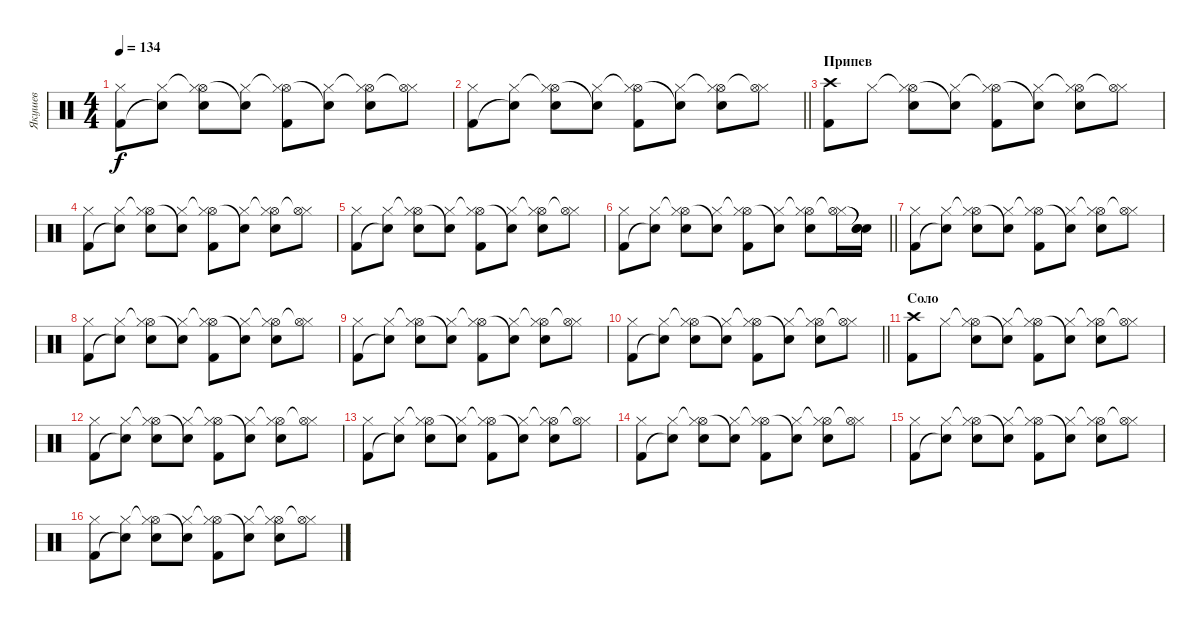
\track ("Якушев" "Якушев") {instrument percussion}
\staff {score}
\articulation defaults
\ts (4 4)
\tempo 134
\clef neutral
\ks c
("Hi-Hat (closed)" "Kick (hit) 2").8{dy f} ("Hi-Hat (closed)" "Snare (hit)"{t}).8 ("Hi-Hat (open)"{t} "Hi-Hat (closed)" "Snare (hit) 2").8 ("Hi-Hat (closed)" "Snare (hit)"{t}).8 ("Hi-Hat (open)"{t} "Hi-Hat (closed)" "Kick (hit) 2").8 ("Hi-Hat (closed)" "Snare (hit)"{t}).8 ("Hi-Hat (open)"{t} "Hi-Hat (closed)" "Snare (hit) 2").8 ("Hi-Hat (closed)" "Hi-Hat (open)"{t}).8 |
\barLineRight lightlight
("Hi-Hat (closed)" "Kick (hit) 2").8 ("Hi-Hat (closed)" "Snare (hit)"{t}).8 ("Hi-Hat (open)"{t} "Hi-Hat (closed)" "Snare (hit) 2").8 ("Hi-Hat (closed)" "Snare (hit)"{t}).8 ("Hi-Hat (open)"{t} "Hi-Hat (closed)" "Kick (hit) 2").8 ("Hi-Hat (closed)" "Snare (hit)"{t}).8 ("Hi-Hat (open)"{t} "Hi-Hat (closed)" "Snare (hit) 2").8 ("Hi-Hat (closed)" "Hi-Hat (open)"{t}).8 |
\section ("" "Припев")
("Crash high (hit)" "Kick (hit) 2").8 "Hi-Hat (closed)".8 ("Hi-Hat (open)"{t} "Hi-Hat (closed)" "Snare (hit) 2").8 ("Hi-Hat (closed)" "Snare (hit)"{t}).8 ("Hi-Hat (open)"{t} "Hi-Hat (closed)" "Kick (hit) 2").8 ("Hi-Hat (closed)" "Snare (hit)"{t}).8 ("Hi-Hat (open)"{t} "Hi-Hat (closed)" "Snare (hit) 2").8 ("Hi-Hat (closed)" "Hi-Hat (open)"{t}).8 |
("Hi-Hat (closed)" "Kick (hit) 2").8 ("Hi-Hat (closed)" "Snare (hit)"{t}).8 ("Hi-Hat (open)"{t} "Hi-Hat (closed)" "Snare (hit) 2").8 ("Hi-Hat (closed)" "Snare (hit)"{t}).8 ("Hi-Hat (open)"{t} "Hi-Hat (closed)" "Kick (hit) 2").8 ("Hi-Hat (closed)" "Snare (hit)"{t}).8 ("Hi-Hat (open)"{t} "Hi-Hat (closed)" "Snare (hit) 2").8 ("Hi-Hat (closed)" "Hi-Hat (open)"{t}).8 |
("Hi-Hat (closed)" "Kick (hit) 2").8 ("Hi-Hat (closed)" "Snare (hit)"{t}).8 ("Hi-Hat (open)"{t} "Hi-Hat (closed)" "Snare (hit) 2").8 ("Hi-Hat (closed)" "Snare (hit)"{t}).8 ("Hi-Hat (open)"{t} "Hi-Hat (closed)" "Kick (hit) 2").8 ("Hi-Hat (closed)" "Snare (hit)"{t}).8 ("Hi-Hat (open)"{t} "Hi-Hat (closed)" "Snare (hit) 2").8 ("Hi-Hat (closed)" "Hi-Hat (open)"{t}).8 |
\barLineRight lightlight
("Hi-Hat (closed)" "Kick (hit) 2").8 ("Hi-Hat (closed)" "Snare (hit)"{t}).8 ("Hi-Hat (open)"{t} "Hi-Hat (closed)" "Snare (hit) 2").8 ("Hi-Hat (closed)" "Snare (hit)"{t}).8 ("Hi-Hat (open)"{t} "Hi-Hat (closed)" "Kick (hit) 2").8 ("Hi-Hat (closed)" "Snare (hit)"{t}).8 ("Hi-Hat (open)"{t} "Hi-Hat (closed)" "Snare (hit) 2").8 ("Hi-Hat (closed)" "Hi-Hat (open)"{t}).16 ("Snare (hit)"{t} "Snare (hit)"{t} "Snare (hit) 2").16 |
("Hi-Hat (closed)" "Kick (hit) 2").8 ("Hi-Hat (closed)" "Snare (hit)"{t}).8 ("Hi-Hat (open)"{t} "Hi-Hat (closed)" "Snare (hit) 2").8 ("Hi-Hat (closed)" "Snare (hit)"{t}).8 ("Hi-Hat (open)"{t} "Hi-Hat (closed)" "Kick (hit) 2").8 ("Hi-Hat (closed)" "Snare (hit)"{t}).8 ("Hi-Hat (open)"{t} "Hi-Hat (closed)" "Snare (hit) 2").8 ("Hi-Hat (closed)" "Hi-Hat (open)"{t}).8 |
("Hi-Hat (closed)" "Kick (hit) 2").8 ("Hi-Hat (closed)" "Snare (hit)"{t}).8 ("Hi-Hat (open)"{t} "Hi-Hat (closed)" "Snare (hit) 2").8 ("Hi-Hat (closed)" "Snare (hit)"{t}).8 ("Hi-Hat (open)"{t} "Hi-Hat (closed)" "Kick (hit) 2").8 ("Hi-Hat (closed)" "Snare (hit)"{t}).8 ("Hi-Hat (open)"{t} "Hi-Hat (closed)" "Snare (hit) 2").8 ("Hi-Hat (closed)" "Hi-Hat (open)"{t}).8 |
("Hi-Hat (closed)" "Kick (hit) 2").8 ("Hi-Hat (closed)" "Snare (hit)"{t}).8 ("Hi-Hat (open)"{t} "Hi-Hat (closed)" "Snare (hit) 2").8 ("Hi-Hat (closed)" "Snare (hit)"{t}).8 ("Hi-Hat (open)"{t} "Hi-Hat (closed)" "Kick (hit) 2").8 ("Hi-Hat (closed)" "Snare (hit)"{t}).8 ("Hi-Hat (open)"{t} "Hi-Hat (closed)" "Snare (hit) 2").8 ("Hi-Hat (closed)" "Hi-Hat (open)"{t}).8 |
\barLineRight lightlight
("Hi-Hat (closed)" "Kick (hit) 2").8 ("Hi-Hat (closed)" "Snare (hit)"{t}).8 ("Hi-Hat (open)"{t} "Hi-Hat (closed)" "Snare (hit) 2").8 ("Hi-Hat (closed)" "Snare (hit)"{t}).8 ("Hi-Hat (open)"{t} "Hi-Hat (closed)" "Kick (hit) 2").8 ("Hi-Hat (closed)" "Snare (hit)"{t}).8 ("Hi-Hat (open)"{t} "Hi-Hat (closed)" "Snare (hit) 2").8 ("Hi-Hat (closed)" "Hi-Hat (open)"{t}).8 |
\section ("" "Соло")
("Crash high (hit)" "Kick (hit) 2").8 "Hi-Hat (closed)".8 ("Hi-Hat (open)"{t} "Hi-Hat (closed)" "Snare (hit) 2").8 ("Hi-Hat (closed)" "Snare (hit)"{t}).8 ("Hi-Hat (open)"{t} "Hi-Hat (closed)" "Kick (hit) 2").8 ("Hi-Hat (closed)" "Snare (hit)"{t}).8 ("Hi-Hat (open)"{t} "Hi-Hat (closed)" "Snare (hit) 2").8 ("Hi-Hat (closed)" "Hi-Hat (open)"{t}).8 |
("Hi-Hat (closed)" "Kick (hit) 2").8 ("Hi-Hat (closed)" "Snare (hit)"{t}).8 ("Hi-Hat (open)"{t} "Hi-Hat (closed)" "Snare (hit) 2").8 ("Hi-Hat (closed)" "Snare (hit)"{t}).8 ("Hi-Hat (open)"{t} "Hi-Hat (closed)" "Kick (hit) 2").8 ("Hi-Hat (closed)" "Snare (hit)"{t}).8 ("Hi-Hat (open)"{t} "Hi-Hat (closed)" "Snare (hit) 2").8 ("Hi-Hat (closed)" "Hi-Hat (open)"{t}).8 |
("Hi-Hat (closed)" "Kick (hit) 2").8 ("Hi-Hat (closed)" "Snare (hit)"{t}).8 ("Hi-Hat (open)"{t} "Hi-Hat (closed)" "Snare (hit) 2").8 ("Hi-Hat (closed)" "Snare (hit)"{t}).8 ("Hi-Hat (open)"{t} "Hi-Hat (closed)" "Kick (hit) 2").8 ("Hi-Hat (closed)" "Snare (hit)"{t}).8 ("Hi-Hat (open)"{t} "Hi-Hat (closed)" "Snare (hit) 2").8 ("Hi-Hat (closed)" "Hi-Hat (open)"{t}).8 |
("Hi-Hat (closed)" "Kick (hit) 2").8 ("Hi-Hat (closed)" "Snare (hit)"{t}).8 ("Hi-Hat (open)"{t} "Hi-Hat (closed)" "Snare (hit) 2").8 ("Hi-Hat (closed)" "Snare (hit)"{t}).8 ("Hi-Hat (open)"{t} "Hi-Hat (closed)" "Kick (hit) 2").8 ("Hi-Hat (closed)" "Snare (hit)"{t}).8 ("Hi-Hat (open)"{t} "Hi-Hat (closed)" "Snare (hit) 2").8 ("Hi-Hat (closed)" "Hi-Hat (open)"{t}).8 |
("Hi-Hat (closed)" "Kick (hit) 2").8 ("Hi-Hat (closed)" "Snare (hit)"{t}).8 ("Hi-Hat (open)"{t} "Hi-Hat (closed)" "Snare (hit) 2").8 ("Hi-Hat (closed)" "Snare (hit)"{t}).8 ("Hi-Hat (open)"{t} "Hi-Hat (closed)" "Kick (hit) 2").8 ("Hi-Hat (closed)" "Snare (hit)"{t}).8 ("Hi-Hat (open)"{t} "Hi-Hat (closed)" "Snare (hit) 2").8 ("Hi-Hat (closed)" "Hi-Hat (open)"{t}).8 |
("Hi-Hat (closed)" "Kick (hit) 2").8 ("Hi-Hat (closed)" "Snare (hit)"{t}).8 ("Hi-Hat (open)"{t} "Hi-Hat (closed)" "Snare (hit) 2").8 ("Hi-Hat (closed)" "Snare (hit)"{t}).8 ("Hi-Hat (open)"{t} "Hi-Hat (closed)" "Kick (hit) 2").8 ("Hi-Hat (closed)" "Snare (hit)"{t}).8 ("Hi-Hat (open)"{t} "Hi-Hat (closed)" "Snare (hit) 2").8 ("Hi-Hat (closed)" "Hi-Hat (open)"{t}).8
